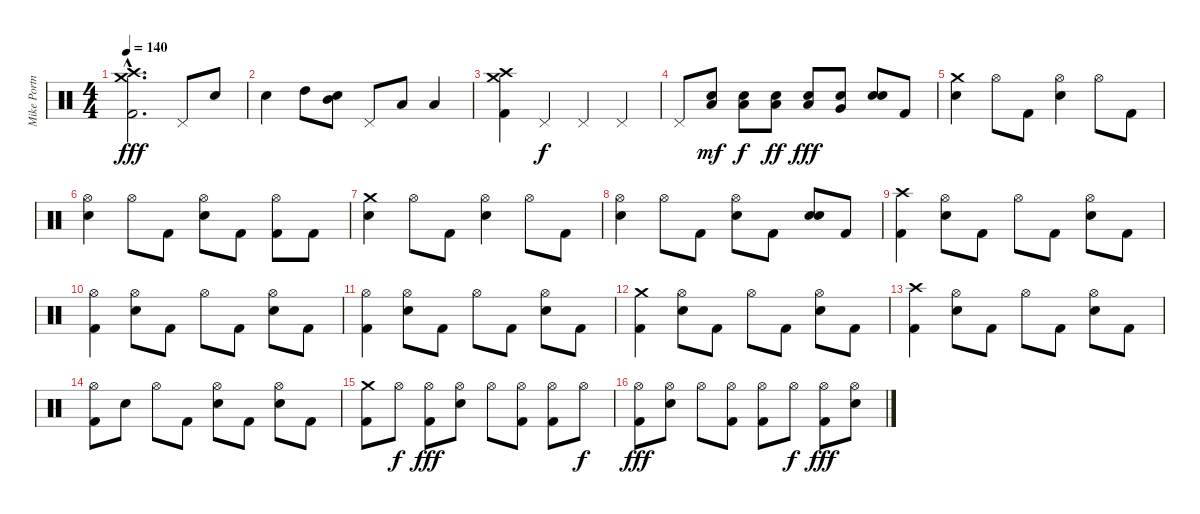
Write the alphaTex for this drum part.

\track ("Mike Portnoy" "Mike Portn") {instrument percussion}
\staff {score}
\articulation defaults
\ts (4 4)
\tempo 140
\clef neutral
\ks c
("Crash high (hit)"{hac} "Crash medium (hit)"{hac} "Kick (hit) 2"{hac}).2{d dy fff} "Pedal Hi-Hat (hit)".8 "Snare (hit) 2".8 |
"Snare (hit) 2".4 "High Tom (hit)".8 ("Mid Tom (hit)" "Snare (hit) 2").8 "Pedal Hi-Hat (hit)".8 "Low Tom (hit)".8 "Low Tom (hit)".4 |
("Crash high (hit)" "Crash medium (hit)" "Kick (hit) 2").4 "Pedal Hi-Hat (hit)".4{dy f} "Pedal Hi-Hat (hit)".4 "Pedal Hi-Hat (hit)".4 |
"Pedal Hi-Hat (hit)".8 ("Low Tom (hit)" "Snare (hit) 2").8{dy mf} ("Low Tom (hit)" "Snare (hit) 2").8{dy f} ("Low Tom (hit)" "Snare (hit) 2").8{dy ff} ("Low Tom (hit)" "Snare (hit) 2").8{dy fff} ("Very Low Tom (hit)" "Snare (hit) 2").8 ("Snare (hit) 2" "Snare (hit) 2").8 "Kick (hit) 2".8 |
("Crash medium (hit)" "Snare (hit) 2").4 "Hi-Hat (open)".8 "Kick (hit) 2".8 ("Hi-Hat (open)" "Snare (hit) 2").4 "Hi-Hat (open)".8 "Kick (hit) 2".8 |
("Hi-Hat (open)" "Snare (hit) 2").4 "Hi-Hat (open)".8 "Kick (hit) 2".8 ("Hi-Hat (open)" "Snare (hit) 2").8 "Kick (hit) 2".8 ("Hi-Hat (open)" "Kick (hit) 2").8 "Kick (hit) 2".8 |
("Crash medium (hit)" "Snare (hit) 2").4 "Hi-Hat (open)".8 "Kick (hit) 2".8 ("Hi-Hat (open)" "Snare (hit) 2").4 "Hi-Hat (open)".8 "Kick (hit) 2".8 |
("Hi-Hat (open)" "Snare (hit) 2").4 "Hi-Hat (open)".8 "Kick (hit) 2".8 ("Hi-Hat (open)" "Snare (hit) 2").8 "Kick (hit) 2".8 ("Snare (hit) 2" "Snare (hit) 2").8 "Kick (hit) 2".8 |
("Crash high (hit)" "Kick (hit) 2").4 ("Hi-Hat (open)" "Snare (hit) 2").8 "Kick (hit) 2".8 "Hi-Hat (open)".8 "Kick (hit) 2".8 ("Hi-Hat (open)" "Snare (hit) 2").8 "Kick (hit) 2".8 |
("Hi-Hat (open)" "Kick (hit) 2").4 ("Hi-Hat (open)" "Snare (hit) 2").8 "Kick (hit) 2".8 "Hi-Hat (open)".8 "Kick (hit) 2".8 ("Hi-Hat (open)" "Snare (hit) 2").8 "Kick (hit) 2".8 |
("Hi-Hat (open)" "Kick (hit) 2").4 ("Hi-Hat (open)" "Snare (hit) 2").8 "Kick (hit) 2".8 "Hi-Hat (open)".8 "Kick (hit) 2".8 ("Hi-Hat (open)" "Snare (hit) 2").8 "Kick (hit) 2".8 |
("Crash medium (hit)" "Kick (hit) 2").4 ("Hi-Hat (open)" "Snare (hit) 2").8 "Kick (hit) 2".8 "Hi-Hat (open)".8 "Kick (hit) 2".8 ("Hi-Hat (open)" "Snare (hit) 2").8 "Kick (hit) 2".8 |
("Crash high (hit)" "Kick (hit) 2").4 ("Hi-Hat (open)" "Snare (hit) 2").8 "Kick (hit) 2".8 "Hi-Hat (open)".8 "Kick (hit) 2".8 ("Hi-Hat (open)" "Snare (hit) 2").8 "Kick (hit) 2".8 |
("Hi-Hat (open)" "Kick (hit) 2").8 "Snare (hit) 2".8 "Hi-Hat (open)".8 "Kick (hit) 2".8 ("Hi-Hat (open)" "Snare (hit) 2").8 "Kick (hit) 2".8 ("Hi-Hat (open)" "Snare (hit) 2").8 "Kick (hit) 2".8 |
("Crash medium (hit)" "Kick (hit) 2").8 "Hi-Hat (open)".8{dy f} ("Hi-Hat (open)" "Kick (hit) 2").8{dy fff} ("Hi-Hat (open)" "Snare (hit) 2").8 "Hi-Hat (open)".8 ("Hi-Hat (open)" "Kick (hit) 2").8 ("Hi-Hat (open)" "Kick (hit) 2").8 "Hi-Hat (open)".8{dy f} |
("Hi-Hat (open)" "Kick (hit) 2").8{dy fff} ("Hi-Hat (open)" "Snare (hit) 2").8 "Hi-Hat (open)".8 ("Hi-Hat (open)" "Kick (hit) 2").8 ("Hi-Hat (open)" "Kick (hit) 2").8 "Hi-Hat (open)".8{dy f} ("Hi-Hat (open)" "Kick (hit) 2").8{dy fff} ("Hi-Hat (open)" "Snare (hit) 2").8
